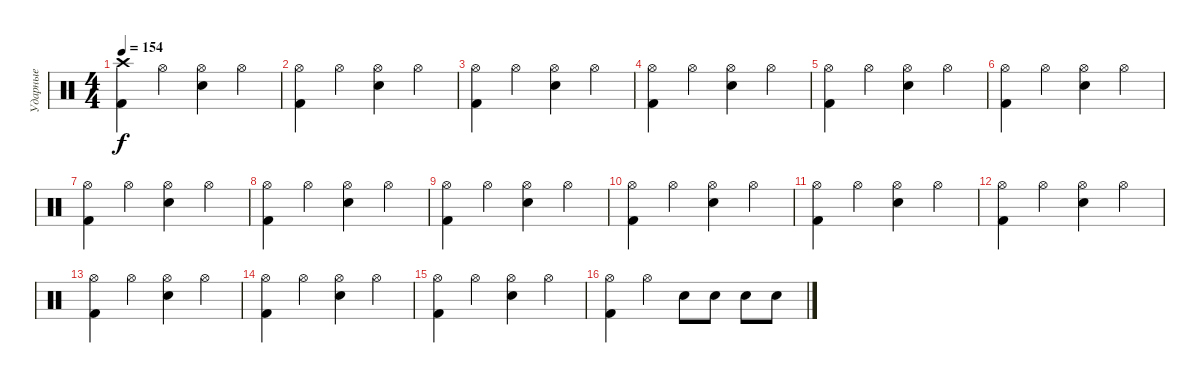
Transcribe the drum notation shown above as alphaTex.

\track ("Ударные" "Ударные") {instrument percussion}
\staff {score}
\articulation defaults
\ts (4 4)
\tempo 154
\clef neutral
\ks c
("Crash high (hit)" "Kick (hit) 2").4{dy f} "Hi-Hat (open)".4 ("Hi-Hat (open)" "Snare (hit) 2").4 "Hi-Hat (open)".4 |
("Hi-Hat (open)" "Kick (hit) 2").4 "Hi-Hat (open)".4 ("Hi-Hat (open)" "Snare (hit) 2").4 "Hi-Hat (open)".4 |
("Hi-Hat (open)" "Kick (hit) 2").4 "Hi-Hat (open)".4 ("Hi-Hat (open)" "Snare (hit) 2").4 "Hi-Hat (open)".4 |
("Hi-Hat (open)" "Kick (hit) 2").4 "Hi-Hat (open)".4 ("Hi-Hat (open)" "Snare (hit) 2").4 "Hi-Hat (open)".4 |
("Hi-Hat (open)" "Kick (hit) 2").4 "Hi-Hat (open)".4 ("Hi-Hat (open)" "Snare (hit) 2").4 "Hi-Hat (open)".4 |
("Hi-Hat (open)" "Kick (hit) 2").4 "Hi-Hat (open)".4 ("Hi-Hat (open)" "Snare (hit) 2").4 "Hi-Hat (open)".4 |
("Hi-Hat (open)" "Kick (hit) 2").4 "Hi-Hat (open)".4 ("Hi-Hat (open)" "Snare (hit) 2").4 "Hi-Hat (open)".4 |
("Hi-Hat (open)" "Kick (hit) 2").4 "Hi-Hat (open)".4 ("Hi-Hat (open)" "Snare (hit) 2").4 "Hi-Hat (open)".4 |
("Hi-Hat (open)" "Kick (hit) 2").4 "Hi-Hat (open)".4 ("Hi-Hat (open)" "Snare (hit) 2").4 "Hi-Hat (open)".4 |
("Hi-Hat (open)" "Kick (hit) 2").4 "Hi-Hat (open)".4 ("Hi-Hat (open)" "Snare (hit) 2").4 "Hi-Hat (open)".4 |
("Hi-Hat (open)" "Kick (hit) 2").4 "Hi-Hat (open)".4 ("Hi-Hat (open)" "Snare (hit) 2").4 "Hi-Hat (open)".4 |
("Hi-Hat (open)" "Kick (hit) 2").4 "Hi-Hat (open)".4 ("Hi-Hat (open)" "Snare (hit) 2").4 "Hi-Hat (open)".4 |
("Hi-Hat (open)" "Kick (hit) 2").4 "Hi-Hat (open)".4 ("Hi-Hat (open)" "Snare (hit) 2").4 "Hi-Hat (open)".4 |
("Hi-Hat (open)" "Kick (hit) 2").4 "Hi-Hat (open)".4 ("Hi-Hat (open)" "Snare (hit) 2").4 "Hi-Hat (open)".4 |
("Hi-Hat (open)" "Kick (hit) 2").4 "Hi-Hat (open)".4 ("Hi-Hat (open)" "Snare (hit) 2").4 "Hi-Hat (open)".4 |
("Hi-Hat (open)" "Kick (hit) 2").4 "Hi-Hat (open)".4 "Snare (hit) 2".8 "Snare (hit) 2".8 "Snare (hit) 2".8 "Snare (hit) 2".8
